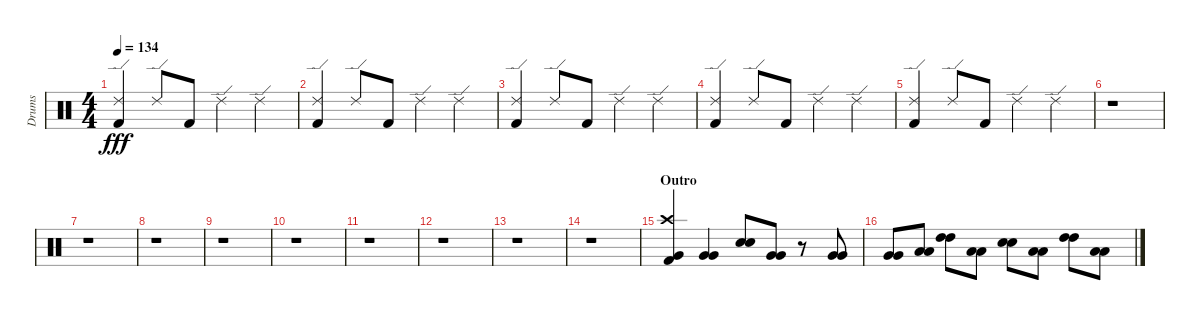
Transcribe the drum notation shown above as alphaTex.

\track ("Drums" "Drums") {instrument percussion}
\staff {score}
\articulation defaults
\ts (4 4)
\tempo 134
\clef neutral
\ks c
("Ride (edge) 2" "Kick (hit) 2").4{dy fff} "Ride (edge) 2".8 "Kick (hit) 2".8 "Ride (edge) 2".4 "Ride (edge) 2".4 |
("Ride (edge) 2" "Kick (hit) 2").4 "Ride (edge) 2".8 "Kick (hit) 2".8 "Ride (edge) 2".4 "Ride (edge) 2".4 |
("Ride (edge) 2" "Kick (hit) 2").4 "Ride (edge) 2".8 "Kick (hit) 2".8 "Ride (edge) 2".4 "Ride (edge) 2".4 |
("Ride (edge) 2" "Kick (hit) 2").4 "Ride (edge) 2".8 "Kick (hit) 2".8 "Ride (edge) 2".4 "Ride (edge) 2".4 |
("Ride (edge) 2" "Kick (hit) 2").4 "Ride (edge) 2".8 "Kick (hit) 2".8 "Ride (edge) 2".4 "Ride (edge) 2".4 |
r.1 |
r.1 |
r.1 |
r.1 |
r.1 |
r.1 |
r.1 |
r.1 |
r.1 |
\section ("" "Outro")
("Crash high (hit)" "Very Low Tom (hit)" "Kick (hit) 2").4 ("Very Low Tom (hit)" "Very Low Tom (hit)").4 ("Electric Snare (hit)" "Electric Snare (hit)").8 ("Very Low Tom (hit)" "Very Low Tom (hit)").8 r.8 ("Very Low Tom (hit)" "Very Low Tom (hit)").8 |
("Very Low Tom (hit)" "Very Low Tom (hit)").8 ("Low Tom (hit)" "Low Tom (hit)").8 ("High Tom (hit)" "High Tom (hit)").8 ("Low Tom (hit)" "Low Tom (hit)").8 ("Electric Snare (hit)" "Electric Snare (hit)").8 ("Low Tom (hit)" "Low Tom (hit)").8 ("High Tom (hit)" "High Tom (hit)").8 ("Low Tom (hit)" "Low Tom (hit)").8
